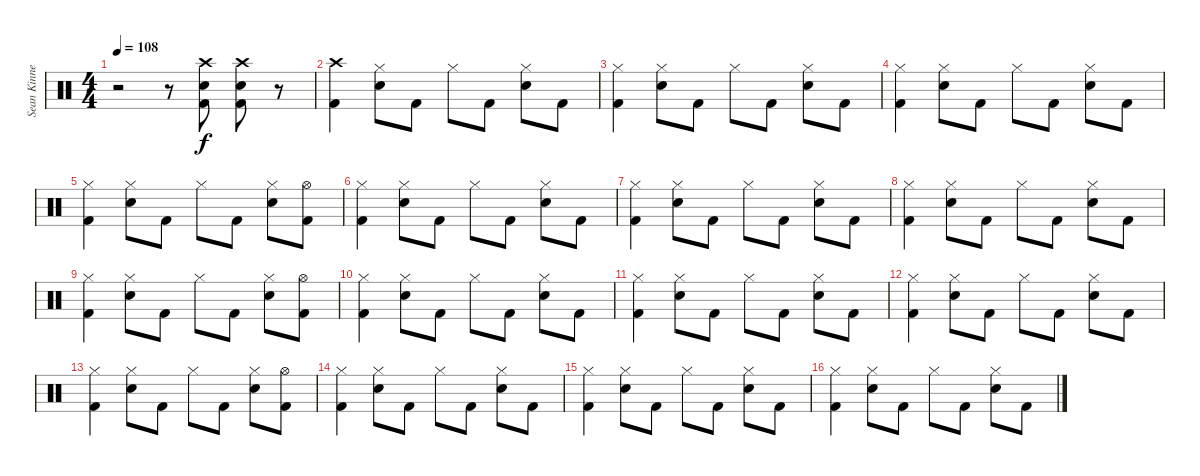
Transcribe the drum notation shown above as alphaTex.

\track ("Sean Kinney- Drums" "Sean Kinne") {instrument percussion}
\staff {score}
\articulation defaults
\ts (4 4)
\tempo 108
\clef neutral
\ks c
r.2{dy f} r.8 ("Crash high (hit)" "Electric Snare (hit)" "Kick (hit) 2").8 ("Crash high (hit)" "Electric Snare (hit)" "Kick (hit) 2").8 r.8 |
("Crash high (hit)" "Kick (hit) 2").4 ("Hi-Hat (closed)" "Electric Snare (hit)").8 "Kick (hit) 2".8 "Hi-Hat (closed)".8 "Kick (hit) 2".8 ("Hi-Hat (closed)" "Electric Snare (hit)").8 "Kick (hit) 2".8 |
("Hi-Hat (closed)" "Kick (hit) 2").4 ("Hi-Hat (closed)" "Electric Snare (hit)").8 "Kick (hit) 2".8 "Hi-Hat (closed)".8 "Kick (hit) 2".8 ("Hi-Hat (closed)" "Electric Snare (hit)").8 "Kick (hit) 2".8 |
("Hi-Hat (closed)" "Kick (hit) 2").4 ("Hi-Hat (closed)" "Electric Snare (hit)").8 "Kick (hit) 2".8 "Hi-Hat (closed)".8 "Kick (hit) 2".8 ("Hi-Hat (closed)" "Electric Snare (hit)").8 "Kick (hit) 2".8 |
("Hi-Hat (closed)" "Kick (hit) 2").4 ("Hi-Hat (closed)" "Electric Snare (hit)").8 "Kick (hit) 2".8 "Hi-Hat (closed)".8 "Kick (hit) 2".8 ("Hi-Hat (closed)" "Electric Snare (hit)").8 ("Hi-Hat (open)" "Kick (hit) 2").8 |
("Hi-Hat (closed)" "Kick (hit) 2").4 ("Hi-Hat (closed)" "Electric Snare (hit)").8 "Kick (hit) 2".8 "Hi-Hat (closed)".8 "Kick (hit) 2".8 ("Hi-Hat (closed)" "Electric Snare (hit)").8 "Kick (hit) 2".8 |
("Hi-Hat (closed)" "Kick (hit) 2").4 ("Hi-Hat (closed)" "Electric Snare (hit)").8 "Kick (hit) 2".8 "Hi-Hat (closed)".8 "Kick (hit) 2".8 ("Hi-Hat (closed)" "Electric Snare (hit)").8 "Kick (hit) 2".8 |
("Hi-Hat (closed)" "Kick (hit) 2").4 ("Hi-Hat (closed)" "Electric Snare (hit)").8 "Kick (hit) 2".8 "Hi-Hat (closed)".8 "Kick (hit) 2".8 ("Hi-Hat (closed)" "Electric Snare (hit)").8 "Kick (hit) 2".8 |
("Hi-Hat (closed)" "Kick (hit) 2").4 ("Hi-Hat (closed)" "Electric Snare (hit)").8 "Kick (hit) 2".8 "Hi-Hat (closed)".8 "Kick (hit) 2".8 ("Hi-Hat (closed)" "Electric Snare (hit)").8 ("Hi-Hat (open)" "Kick (hit) 2").8 |
("Hi-Hat (closed)" "Kick (hit) 2").4 ("Hi-Hat (closed)" "Electric Snare (hit)").8 "Kick (hit) 2".8 "Hi-Hat (closed)".8 "Kick (hit) 2".8 ("Hi-Hat (closed)" "Electric Snare (hit)").8 "Kick (hit) 2".8 |
("Hi-Hat (closed)" "Kick (hit) 2").4 ("Hi-Hat (closed)" "Electric Snare (hit)").8 "Kick (hit) 2".8 "Hi-Hat (closed)".8 "Kick (hit) 2".8 ("Hi-Hat (closed)" "Electric Snare (hit)").8 "Kick (hit) 2".8 |
("Hi-Hat (closed)" "Kick (hit) 2").4 ("Hi-Hat (closed)" "Electric Snare (hit)").8 "Kick (hit) 2".8 "Hi-Hat (closed)".8 "Kick (hit) 2".8 ("Hi-Hat (closed)" "Electric Snare (hit)").8 "Kick (hit) 2".8 |
("Hi-Hat (closed)" "Kick (hit) 2").4 ("Hi-Hat (closed)" "Electric Snare (hit)").8 "Kick (hit) 2".8 "Hi-Hat (closed)".8 "Kick (hit) 2".8 ("Hi-Hat (closed)" "Electric Snare (hit)").8 ("Hi-Hat (open)" "Kick (hit) 2").8 |
("Hi-Hat (closed)" "Kick (hit) 2").4 ("Hi-Hat (closed)" "Electric Snare (hit)").8 "Kick (hit) 2".8 "Hi-Hat (closed)".8 "Kick (hit) 2".8 ("Hi-Hat (closed)" "Electric Snare (hit)").8 "Kick (hit) 2".8 |
("Hi-Hat (closed)" "Kick (hit) 2").4 ("Hi-Hat (closed)" "Electric Snare (hit)").8 "Kick (hit) 2".8 "Hi-Hat (closed)".8 "Kick (hit) 2".8 ("Hi-Hat (closed)" "Electric Snare (hit)").8 "Kick (hit) 2".8 |
("Hi-Hat (closed)" "Kick (hit) 2").4 ("Hi-Hat (closed)" "Electric Snare (hit)").8 "Kick (hit) 2".8 "Hi-Hat (closed)".8 "Kick (hit) 2".8 ("Hi-Hat (closed)" "Electric Snare (hit)").8 "Kick (hit) 2".8
